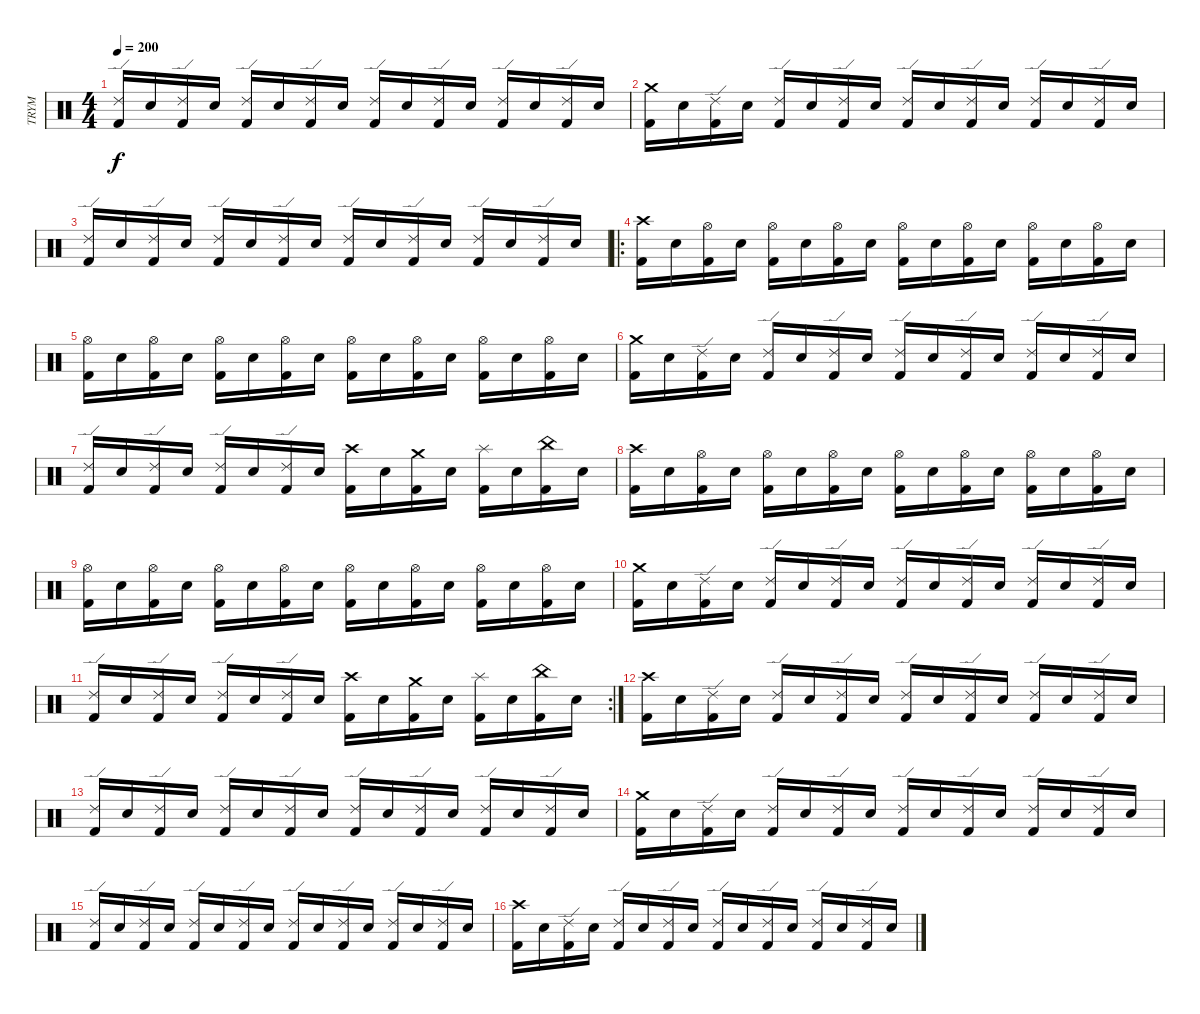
\track ("TRYM" "TRYM") {instrument percussion}
\staff {score}
\articulation defaults
\ts (4 4)
\tempo 200
\clef neutral
\ks c
("Kick (hit) 2" "Ride (edge) 2").16{dy f} "Electric Snare (hit)".16 ("Kick (hit) 2" "Ride (edge) 2").16 "Electric Snare (hit)".16 ("Kick (hit) 2" "Ride (edge) 2").16 "Electric Snare (hit)".16 ("Kick (hit) 2" "Ride (edge) 2").16 "Electric Snare (hit)".16 ("Kick (hit) 2" "Ride (edge) 2").16 "Electric Snare (hit)".16 ("Kick (hit) 2" "Ride (edge) 2").16 "Electric Snare (hit)".16 ("Kick (hit) 2" "Ride (edge) 2").16 "Electric Snare (hit)".16 ("Kick (hit) 2" "Ride (edge) 2").16 "Electric Snare (hit)".16 |
("Kick (hit) 2" "Crash medium (hit)").16 "Electric Snare (hit)".16 ("Kick (hit) 2" "Ride (edge) 2").16 "Electric Snare (hit)".16 ("Kick (hit) 2" "Ride (edge) 2").16 "Electric Snare (hit)".16 ("Kick (hit) 2" "Ride (edge) 2").16 "Electric Snare (hit)".16 ("Kick (hit) 2" "Ride (edge) 2").16 "Electric Snare (hit)".16 ("Kick (hit) 2" "Ride (edge) 2").16 "Electric Snare (hit)".16 ("Kick (hit) 2" "Ride (edge) 2").16 "Electric Snare (hit)".16 ("Kick (hit) 2" "Ride (edge) 2").16 "Electric Snare (hit)".16 |
("Kick (hit) 2" "Ride (edge) 2").16 "Electric Snare (hit)".16 ("Kick (hit) 2" "Ride (edge) 2").16 "Electric Snare (hit)".16 ("Kick (hit) 2" "Ride (edge) 2").16 "Electric Snare (hit)".16 ("Kick (hit) 2" "Ride (edge) 2").16 "Electric Snare (hit)".16 ("Kick (hit) 2" "Ride (edge) 2").16 "Electric Snare (hit)".16 ("Kick (hit) 2" "Ride (edge) 2").16 "Electric Snare (hit)".16 ("Kick (hit) 2" "Ride (edge) 2").16 "Electric Snare (hit)".16 ("Kick (hit) 2" "Ride (edge) 2").16 "Electric Snare (hit)".16 |
\ro
("Kick (hit) 2" "Crash high (hit)").16 "Electric Snare (hit)".16 ("Kick (hit) 2" "Hi-Hat (open)").16 "Electric Snare (hit)".16 ("Kick (hit) 2" "Hi-Hat (open)").16 "Electric Snare (hit)".16 ("Kick (hit) 2" "Hi-Hat (open)").16 "Electric Snare (hit)".16 ("Kick (hit) 2" "Hi-Hat (open)").16 "Electric Snare (hit)".16 ("Kick (hit) 2" "Hi-Hat (open)").16 "Electric Snare (hit)".16 ("Kick (hit) 2" "Hi-Hat (open)").16 "Electric Snare (hit)".16 ("Kick (hit) 2" "Hi-Hat (open)").16 "Electric Snare (hit)".16 |
("Kick (hit) 2" "Hi-Hat (open)").16 "Electric Snare (hit)".16 ("Kick (hit) 2" "Hi-Hat (open)").16 "Electric Snare (hit)".16 ("Kick (hit) 2" "Hi-Hat (open)").16 "Electric Snare (hit)".16 ("Kick (hit) 2" "Hi-Hat (open)").16 "Electric Snare (hit)".16 ("Kick (hit) 2" "Hi-Hat (open)").16 "Electric Snare (hit)".16 ("Kick (hit) 2" "Hi-Hat (open)").16 "Electric Snare (hit)".16 ("Kick (hit) 2" "Hi-Hat (open)").16 "Electric Snare (hit)".16 ("Kick (hit) 2" "Hi-Hat (open)").16 "Electric Snare (hit)".16 |
("Kick (hit) 2" "Crash medium (hit)").16 "Electric Snare (hit)".16 ("Kick (hit) 2" "Ride (edge) 2").16 "Electric Snare (hit)".16 ("Kick (hit) 2" "Ride (edge) 2").16 "Electric Snare (hit)".16 ("Kick (hit) 2" "Ride (edge) 2").16 "Electric Snare (hit)".16 ("Kick (hit) 2" "Ride (edge) 2").16 "Electric Snare (hit)".16 ("Kick (hit) 2" "Ride (edge) 2").16 "Electric Snare (hit)".16 ("Kick (hit) 2" "Ride (edge) 2").16 "Electric Snare (hit)".16 ("Kick (hit) 2" "Ride (edge) 2").16 "Electric Snare (hit)".16 |
("Kick (hit) 2" "Ride (edge) 2").16 "Electric Snare (hit)".16 ("Kick (hit) 2" "Ride (edge) 2").16 "Electric Snare (hit)".16 ("Kick (hit) 2" "Ride (edge) 2").16 "Electric Snare (hit)".16 ("Kick (hit) 2" "Ride (edge) 2").16 "Electric Snare (hit)".16 ("Kick (hit) 2" "Crash high (hit)").16 "Electric Snare (hit)".16 ("Kick (hit) 2" "Crash medium (hit)").16 "Electric Snare (hit)".16 ("Kick (hit) 2" "Splash (hit)").16 "Electric Snare (hit)".16 ("Kick (hit) 2" "China (hit)").16 "Electric Snare (hit)".16 |
("Kick (hit) 2" "Crash high (hit)").16 "Electric Snare (hit)".16 ("Kick (hit) 2" "Hi-Hat (open)").16 "Electric Snare (hit)".16 ("Kick (hit) 2" "Hi-Hat (open)").16 "Electric Snare (hit)".16 ("Kick (hit) 2" "Hi-Hat (open)").16 "Electric Snare (hit)".16 ("Kick (hit) 2" "Hi-Hat (open)").16 "Electric Snare (hit)".16 ("Kick (hit) 2" "Hi-Hat (open)").16 "Electric Snare (hit)".16 ("Kick (hit) 2" "Hi-Hat (open)").16 "Electric Snare (hit)".16 ("Kick (hit) 2" "Hi-Hat (open)").16 "Electric Snare (hit)".16 |
("Kick (hit) 2" "Hi-Hat (open)").16 "Electric Snare (hit)".16 ("Kick (hit) 2" "Hi-Hat (open)").16 "Electric Snare (hit)".16 ("Kick (hit) 2" "Hi-Hat (open)").16 "Electric Snare (hit)".16 ("Kick (hit) 2" "Hi-Hat (open)").16 "Electric Snare (hit)".16 ("Kick (hit) 2" "Hi-Hat (open)").16 "Electric Snare (hit)".16 ("Kick (hit) 2" "Hi-Hat (open)").16 "Electric Snare (hit)".16 ("Kick (hit) 2" "Hi-Hat (open)").16 "Electric Snare (hit)".16 ("Kick (hit) 2" "Hi-Hat (open)").16 "Electric Snare (hit)".16 |
("Kick (hit) 2" "Crash medium (hit)").16 "Electric Snare (hit)".16 ("Kick (hit) 2" "Ride (edge) 2").16 "Electric Snare (hit)".16 ("Kick (hit) 2" "Ride (edge) 2").16 "Electric Snare (hit)".16 ("Kick (hit) 2" "Ride (edge) 2").16 "Electric Snare (hit)".16 ("Kick (hit) 2" "Ride (edge) 2").16 "Electric Snare (hit)".16 ("Kick (hit) 2" "Ride (edge) 2").16 "Electric Snare (hit)".16 ("Kick (hit) 2" "Ride (edge) 2").16 "Electric Snare (hit)".16 ("Kick (hit) 2" "Ride (edge) 2").16 "Electric Snare (hit)".16 |
\rc 2
("Kick (hit) 2" "Ride (edge) 2").16 "Electric Snare (hit)".16 ("Kick (hit) 2" "Ride (edge) 2").16 "Electric Snare (hit)".16 ("Kick (hit) 2" "Ride (edge) 2").16 "Electric Snare (hit)".16 ("Kick (hit) 2" "Ride (edge) 2").16 "Electric Snare (hit)".16 ("Kick (hit) 2" "Crash high (hit)").16 "Electric Snare (hit)".16 ("Kick (hit) 2" "Crash medium (hit)").16 "Electric Snare (hit)".16 ("Kick (hit) 2" "Splash (hit)").16 "Electric Snare (hit)".16 ("Kick (hit) 2" "China (hit)").16 "Electric Snare (hit)".16 |
("Kick (hit) 2" "Crash high (hit)").16 "Electric Snare (hit)".16 ("Kick (hit) 2" "Ride (edge) 2").16 "Electric Snare (hit)".16 ("Kick (hit) 2" "Ride (edge) 2").16 "Electric Snare (hit)".16 ("Kick (hit) 2" "Ride (edge) 2").16 "Electric Snare (hit)".16 ("Kick (hit) 2" "Ride (edge) 2").16 "Electric Snare (hit)".16 ("Kick (hit) 2" "Ride (edge) 2").16 "Electric Snare (hit)".16 ("Kick (hit) 2" "Ride (edge) 2").16 "Electric Snare (hit)".16 ("Kick (hit) 2" "Ride (edge) 2").16 "Electric Snare (hit)".16 |
("Kick (hit) 2" "Ride (edge) 2").16 "Electric Snare (hit)".16 ("Kick (hit) 2" "Ride (edge) 2").16 "Electric Snare (hit)".16 ("Kick (hit) 2" "Ride (edge) 2").16 "Electric Snare (hit)".16 ("Kick (hit) 2" "Ride (edge) 2").16 "Electric Snare (hit)".16 ("Kick (hit) 2" "Ride (edge) 2").16 "Electric Snare (hit)".16 ("Kick (hit) 2" "Ride (edge) 2").16 "Electric Snare (hit)".16 ("Kick (hit) 2" "Ride (edge) 2").16 "Electric Snare (hit)".16 ("Kick (hit) 2" "Ride (edge) 2").16 "Electric Snare (hit)".16 |
("Kick (hit) 2" "Crash medium (hit)").16 "Electric Snare (hit)".16 ("Kick (hit) 2" "Ride (edge) 2").16 "Electric Snare (hit)".16 ("Kick (hit) 2" "Ride (edge) 2").16 "Electric Snare (hit)".16 ("Kick (hit) 2" "Ride (edge) 2").16 "Electric Snare (hit)".16 ("Kick (hit) 2" "Ride (edge) 2").16 "Electric Snare (hit)".16 ("Kick (hit) 2" "Ride (edge) 2").16 "Electric Snare (hit)".16 ("Kick (hit) 2" "Ride (edge) 2").16 "Electric Snare (hit)".16 ("Kick (hit) 2" "Ride (edge) 2").16 "Electric Snare (hit)".16 |
("Kick (hit) 2" "Ride (edge) 2").16 "Electric Snare (hit)".16 ("Kick (hit) 2" "Ride (edge) 2").16 "Electric Snare (hit)".16 ("Kick (hit) 2" "Ride (edge) 2").16 "Electric Snare (hit)".16 ("Kick (hit) 2" "Ride (edge) 2").16 "Electric Snare (hit)".16 ("Kick (hit) 2" "Ride (edge) 2").16 "Electric Snare (hit)".16 ("Kick (hit) 2" "Ride (edge) 2").16 "Electric Snare (hit)".16 ("Kick (hit) 2" "Ride (edge) 2").16 "Electric Snare (hit)".16 ("Kick (hit) 2" "Ride (edge) 2").16 "Electric Snare (hit)".16 |
("Kick (hit) 2" "Crash high (hit)").16 "Electric Snare (hit)".16 ("Kick (hit) 2" "Ride (edge) 2").16 "Electric Snare (hit)".16 ("Kick (hit) 2" "Ride (edge) 2").16 "Electric Snare (hit)".16 ("Kick (hit) 2" "Ride (edge) 2").16 "Electric Snare (hit)".16 ("Kick (hit) 2" "Ride (edge) 2").16 "Electric Snare (hit)".16 ("Kick (hit) 2" "Ride (edge) 2").16 "Electric Snare (hit)".16 ("Kick (hit) 2" "Ride (edge) 2").16 "Electric Snare (hit)".16 ("Kick (hit) 2" "Ride (edge) 2").16 "Electric Snare (hit)".16
